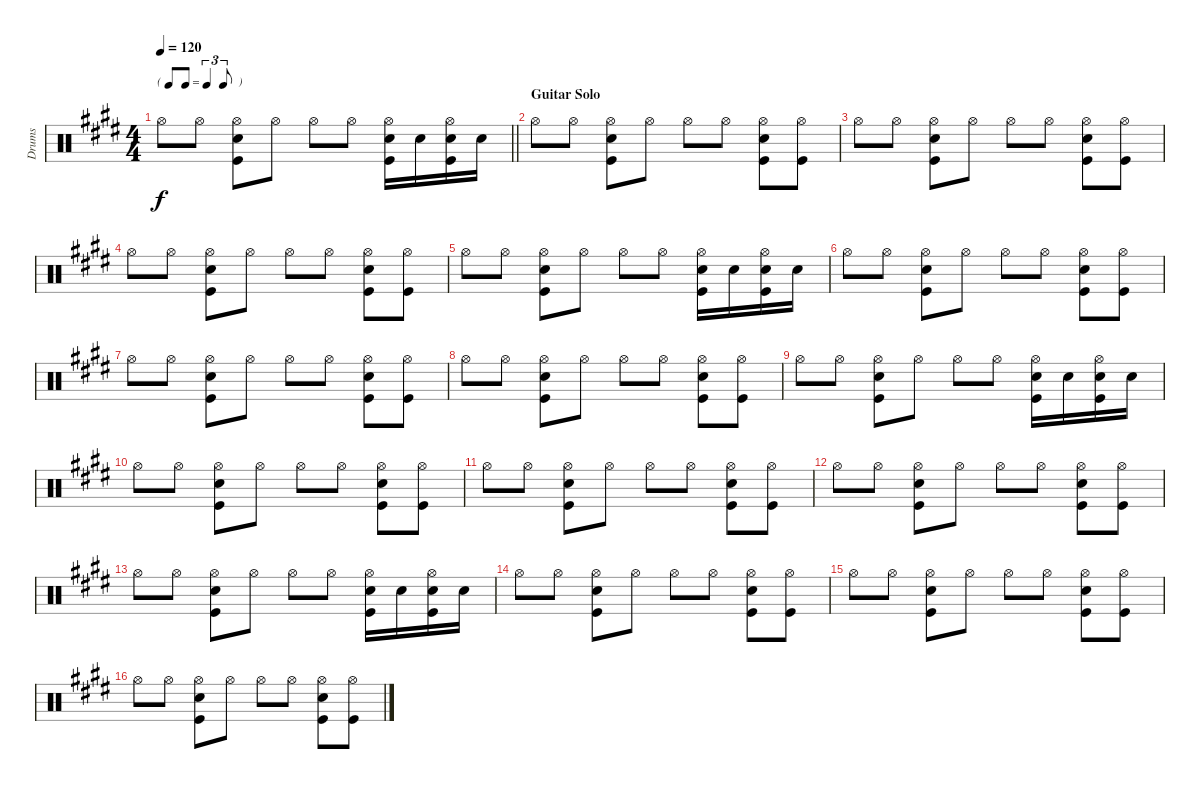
\track ("Drums" "Drums") {instrument percussion}
\staff {score}
\articulation defaults
\ts (4 4)
\tf triplet8th
\tempo 120
\clef neutral
\barLineRight lightlight
\ks e "Hi-Hat (open)".8{dy f} "Hi-Hat (open)".8
("Kick (hit)" "Electric Snare (hit)" "Hi-Hat (open)").8 "Hi-Hat (open)".8 "Hi-Hat (open)".8 "Hi-Hat (open)".8 ("Kick (hit)" "Electric Snare (hit)" "Hi-Hat (open)").16 "Electric Snare (hit)".16 ("Electric Snare (hit)" "Kick (hit)" "Hi-Hat (open)").16 "Electric Snare (hit)".16 |
\section ("" "Guitar Solo")
"Hi-Hat (open)".8 "Hi-Hat (open)".8 ("Kick (hit)" "Electric Snare (hit)" "Hi-Hat (open)").8 "Hi-Hat (open)".8 "Hi-Hat (open)".8 "Hi-Hat (open)".8 ("Kick (hit)" "Electric Snare (hit)" "Hi-Hat (open)").8 ("Kick (hit)" "Hi-Hat (open)").8 |
"Hi-Hat (open)".8 "Hi-Hat (open)".8 ("Kick (hit)" "Electric Snare (hit)" "Hi-Hat (open)").8 "Hi-Hat (open)".8 "Hi-Hat (open)".8 "Hi-Hat (open)".8 ("Kick (hit)" "Electric Snare (hit)" "Hi-Hat (open)").8 ("Kick (hit)" "Hi-Hat (open)").8 |
"Hi-Hat (open)".8 "Hi-Hat (open)".8 ("Kick (hit)" "Electric Snare (hit)" "Hi-Hat (open)").8 "Hi-Hat (open)".8 "Hi-Hat (open)".8 "Hi-Hat (open)".8 ("Kick (hit)" "Electric Snare (hit)" "Hi-Hat (open)").8 ("Kick (hit)" "Hi-Hat (open)").8 |
"Hi-Hat (open)".8 "Hi-Hat (open)".8 ("Kick (hit)" "Electric Snare (hit)" "Hi-Hat (open)").8 "Hi-Hat (open)".8 "Hi-Hat (open)".8 "Hi-Hat (open)".8 ("Kick (hit)" "Electric Snare (hit)" "Hi-Hat (open)").16 "Electric Snare (hit)".16 ("Electric Snare (hit)" "Kick (hit)" "Hi-Hat (open)").16 "Electric Snare (hit)".16 |
"Hi-Hat (open)".8 "Hi-Hat (open)".8 ("Kick (hit)" "Electric Snare (hit)" "Hi-Hat (open)").8 "Hi-Hat (open)".8 "Hi-Hat (open)".8 "Hi-Hat (open)".8 ("Kick (hit)" "Electric Snare (hit)" "Hi-Hat (open)").8 ("Kick (hit)" "Hi-Hat (open)").8 |
"Hi-Hat (open)".8 "Hi-Hat (open)".8 ("Kick (hit)" "Electric Snare (hit)" "Hi-Hat (open)").8 "Hi-Hat (open)".8 "Hi-Hat (open)".8 "Hi-Hat (open)".8 ("Kick (hit)" "Electric Snare (hit)" "Hi-Hat (open)").8 ("Kick (hit)" "Hi-Hat (open)").8 |
"Hi-Hat (open)".8 "Hi-Hat (open)".8 ("Kick (hit)" "Electric Snare (hit)" "Hi-Hat (open)").8 "Hi-Hat (open)".8 "Hi-Hat (open)".8 "Hi-Hat (open)".8 ("Kick (hit)" "Electric Snare (hit)" "Hi-Hat (open)").8 ("Kick (hit)" "Hi-Hat (open)").8 |
"Hi-Hat (open)".8 "Hi-Hat (open)".8 ("Kick (hit)" "Electric Snare (hit)" "Hi-Hat (open)").8 "Hi-Hat (open)".8 "Hi-Hat (open)".8 "Hi-Hat (open)".8 ("Kick (hit)" "Electric Snare (hit)" "Hi-Hat (open)").16 "Electric Snare (hit)".16 ("Electric Snare (hit)" "Kick (hit)" "Hi-Hat (open)").16 "Electric Snare (hit)".16 |
"Hi-Hat (open)".8 "Hi-Hat (open)".8 ("Kick (hit)" "Electric Snare (hit)" "Hi-Hat (open)").8 "Hi-Hat (open)".8 "Hi-Hat (open)".8 "Hi-Hat (open)".8 ("Kick (hit)" "Electric Snare (hit)" "Hi-Hat (open)").8 ("Kick (hit)" "Hi-Hat (open)").8 |
"Hi-Hat (open)".8 "Hi-Hat (open)".8 ("Kick (hit)" "Electric Snare (hit)" "Hi-Hat (open)").8 "Hi-Hat (open)".8 "Hi-Hat (open)".8 "Hi-Hat (open)".8 ("Kick (hit)" "Electric Snare (hit)" "Hi-Hat (open)").8 ("Kick (hit)" "Hi-Hat (open)").8 |
"Hi-Hat (open)".8 "Hi-Hat (open)".8 ("Kick (hit)" "Electric Snare (hit)" "Hi-Hat (open)").8 "Hi-Hat (open)".8 "Hi-Hat (open)".8 "Hi-Hat (open)".8 ("Kick (hit)" "Electric Snare (hit)" "Hi-Hat (open)").8 ("Kick (hit)" "Hi-Hat (open)").8 |
"Hi-Hat (open)".8 "Hi-Hat (open)".8 ("Kick (hit)" "Electric Snare (hit)" "Hi-Hat (open)").8 "Hi-Hat (open)".8 "Hi-Hat (open)".8 "Hi-Hat (open)".8 ("Kick (hit)" "Electric Snare (hit)" "Hi-Hat (open)").16 "Electric Snare (hit)".16 ("Electric Snare (hit)" "Kick (hit)" "Hi-Hat (open)").16 "Electric Snare (hit)".16 |
"Hi-Hat (open)".8 "Hi-Hat (open)".8 ("Kick (hit)" "Electric Snare (hit)" "Hi-Hat (open)").8 "Hi-Hat (open)".8 "Hi-Hat (open)".8 "Hi-Hat (open)".8 ("Kick (hit)" "Electric Snare (hit)" "Hi-Hat (open)").8 ("Kick (hit)" "Hi-Hat (open)").8 |
"Hi-Hat (open)".8 "Hi-Hat (open)".8 ("Kick (hit)" "Electric Snare (hit)" "Hi-Hat (open)").8 "Hi-Hat (open)".8 "Hi-Hat (open)".8 "Hi-Hat (open)".8 ("Kick (hit)" "Electric Snare (hit)" "Hi-Hat (open)").8 ("Kick (hit)" "Hi-Hat (open)").8 |
"Hi-Hat (open)".8 "Hi-Hat (open)".8 ("Kick (hit)" "Electric Snare (hit)" "Hi-Hat (open)").8 "Hi-Hat (open)".8 "Hi-Hat (open)".8 "Hi-Hat (open)".8 ("Kick (hit)" "Electric Snare (hit)" "Hi-Hat (open)").8 ("Kick (hit)" "Hi-Hat (open)").8
